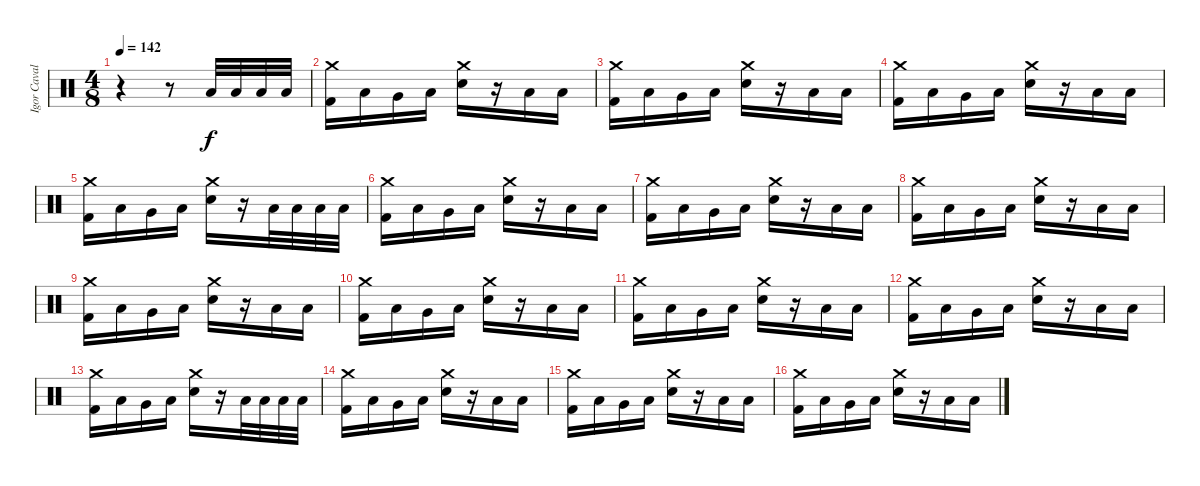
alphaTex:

\track ("Igor Cavalera" "Igor Caval") {instrument percussion}
\staff {score}
\articulation defaults
\ts (4 8)
\tempo 142
\clef neutral
\ks c
r.4{dy f} r.8 "Low Tom (hit)".32 "Low Tom (hit)".32 "Low Tom (hit)".32 "Low Tom (hit)".32 |
("Kick (hit) 2" "Crash medium (hit)").16 "Low Tom (hit)".16 "Very Low Tom (hit)".16 "Low Floor Tom (hit)".16 ("Electric Snare (hit)" "Crash medium (hit)").16 r.16 "Low Floor Tom (hit)".16 "Low Tom (hit)".16 |
("Kick (hit) 2" "Crash medium (hit)").16 "Low Tom (hit)".16 "Very Low Tom (hit)".16 "Low Floor Tom (hit)".16 ("Electric Snare (hit)" "Crash medium (hit)").16 r.16 "Low Floor Tom (hit)".16 "Low Tom (hit)".16 |
("Kick (hit) 2" "Crash medium (hit)").16 "Low Tom (hit)".16 "Very Low Tom (hit)".16 "Low Floor Tom (hit)".16 ("Electric Snare (hit)" "Crash medium (hit)").16 r.16 "Low Floor Tom (hit)".16 "Low Tom (hit)".16 |
("Kick (hit) 2" "Crash medium (hit)").16 "Low Tom (hit)".16 "Very Low Tom (hit)".16 "Low Floor Tom (hit)".16 ("Electric Snare (hit)" "Crash medium (hit)").16 r.16 "Low Tom (hit)".32 "Low Tom (hit)".32 "Low Tom (hit)".32 "Low Tom (hit)".32 |
("Kick (hit) 2" "Crash medium (hit)").16 "Low Tom (hit)".16 "Very Low Tom (hit)".16 "Low Floor Tom (hit)".16 ("Electric Snare (hit)" "Crash medium (hit)").16 r.16 "Low Floor Tom (hit)".16 "Low Tom (hit)".16 |
("Kick (hit) 2" "Crash medium (hit)").16 "Low Tom (hit)".16 "Very Low Tom (hit)".16 "Low Floor Tom (hit)".16 ("Electric Snare (hit)" "Crash medium (hit)").16 r.16 "Low Floor Tom (hit)".16 "Low Tom (hit)".16 |
("Kick (hit) 2" "Crash medium (hit)").16 "Low Tom (hit)".16 "Very Low Tom (hit)".16 "Low Floor Tom (hit)".16 ("Electric Snare (hit)" "Crash medium (hit)").16 r.16 "Low Floor Tom (hit)".16 "Low Tom (hit)".16 |
("Kick (hit) 2" "Crash medium (hit)").16 "Low Tom (hit)".16 "Very Low Tom (hit)".16 "Low Floor Tom (hit)".16 ("Electric Snare (hit)" "Crash medium (hit)").16 r.16 "Low Floor Tom (hit)".16 "Low Tom (hit)".16 |
("Kick (hit) 2" "Crash medium (hit)").16 "Low Tom (hit)".16 "Very Low Tom (hit)".16 "Low Floor Tom (hit)".16 ("Electric Snare (hit)" "Crash medium (hit)").16 r.16 "Low Floor Tom (hit)".16 "Low Tom (hit)".16 |
("Kick (hit) 2" "Crash medium (hit)").16 "Low Tom (hit)".16 "Very Low Tom (hit)".16 "Low Floor Tom (hit)".16 ("Electric Snare (hit)" "Crash medium (hit)").16 r.16 "Low Floor Tom (hit)".16 "Low Tom (hit)".16 |
("Kick (hit) 2" "Crash medium (hit)").16 "Low Tom (hit)".16 "Very Low Tom (hit)".16 "Low Floor Tom (hit)".16 ("Electric Snare (hit)" "Crash medium (hit)").16 r.16 "Low Floor Tom (hit)".16 "Low Tom (hit)".16 |
("Kick (hit) 2" "Crash medium (hit)").16 "Low Tom (hit)".16 "Very Low Tom (hit)".16 "Low Floor Tom (hit)".16 ("Electric Snare (hit)" "Crash medium (hit)").16 r.16 "Low Tom (hit)".32 "Low Tom (hit)".32 "Low Tom (hit)".32 "Low Tom (hit)".32 |
("Kick (hit) 2" "Crash medium (hit)").16 "Low Tom (hit)".16 "Very Low Tom (hit)".16 "Low Floor Tom (hit)".16 ("Electric Snare (hit)" "Crash medium (hit)").16 r.16 "Low Floor Tom (hit)".16 "Low Tom (hit)".16 |
("Kick (hit) 2" "Crash medium (hit)").16 "Low Tom (hit)".16 "Very Low Tom (hit)".16 "Low Floor Tom (hit)".16 ("Electric Snare (hit)" "Crash medium (hit)").16 r.16 "Low Floor Tom (hit)".16 "Low Tom (hit)".16 |
("Kick (hit) 2" "Crash medium (hit)").16 "Low Tom (hit)".16 "Very Low Tom (hit)".16 "Low Floor Tom (hit)".16 ("Electric Snare (hit)" "Crash medium (hit)").16 r.16 "Low Floor Tom (hit)".16 "Low Tom (hit)".16
